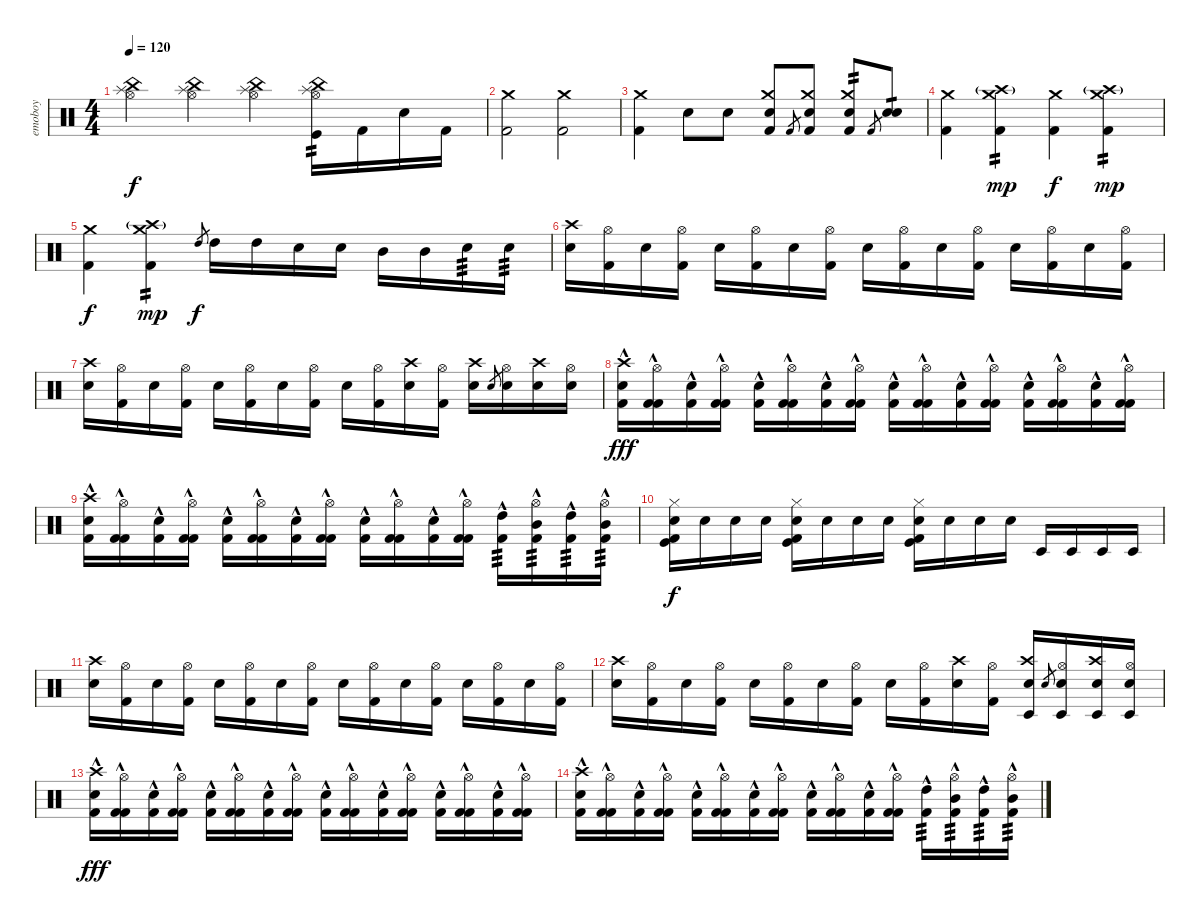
\track ("emoboy" "emoboy") {instrument percussion}
\staff {score}
\articulation defaults
\ts (4 4)
\tempo 120
\clef neutral
\ks c
("China (hit)" "Hi-Hat (open)" "Splash (hit)").4{dy f} ("China (hit)" "Hi-Hat (open)" "Splash (hit)").4 ("China (hit)" "Hi-Hat (open)" "Splash (hit)").4 ("China (hit)" "Hi-Hat (open)" "Kick (hit)" "Splash (hit)").16{tp 2} "Kick (hit) 2".16 "Electric Snare (hit)".16 "Kick (hit) 2".16 |
("Crash medium (hit)" "Kick (hit) 2").2 ("Crash medium (hit)" "Kick (hit) 2").2 |
("Kick (hit) 2" "Crash medium (hit)").4 "Snare (hit)".8 "Snare (hit)".8 ("Crash medium (hit)" "Kick (hit) 2" "Snare (hit)").8 "Kick (hit) 2".8{gr} ("Crash medium (hit)" "Kick (hit) 2" "Snare (hit)").8 ("Crash medium (hit)" "Kick (hit) 2" "Snare (hit)").8{tp 2} "Kick (hit) 2".8{gr} ("Electric Snare (hit)" "Snare (hit)").8{tp 1} |
("Crash medium (hit)" "Kick (hit) 2").4 ("Crash high (hit)"{g} "Crash medium (hit)" "Kick (hit) 2").4{tp 2 dy mp} ("Crash medium (hit)" "Kick (hit) 2").4{dy f} ("Crash high (hit)"{g} "Crash medium (hit)" "Kick (hit) 2").4{tp 2 dy mp} |
("Crash medium (hit)" "Kick (hit) 2").4{dy f} ("Crash high (hit)"{g} "Crash medium (hit)" "Kick (hit) 2").4{tp 2 dy mp} "High Tom (hit)".8{gr dy f} "High Tom (hit)".16 "High Tom (hit)".16 "Electric Snare (hit)".16 "Electric Snare (hit)".16 "Mid Tom (hit)".16 "Mid Tom (hit)".16 "Electric Snare (hit)".16{tp 3} "Electric Snare (hit)".16{tp 3} |
("Electric Snare (hit)" "Crash high (hit)").16 ("Kick (hit) 2" "Hi-Hat (open)").16 "Electric Snare (hit)".16 ("Kick (hit) 2" "Hi-Hat (open)").16 "Electric Snare (hit)".16 ("Kick (hit) 2" "Hi-Hat (open)").16 "Electric Snare (hit)".16 ("Kick (hit) 2" "Hi-Hat (open)").16 "Electric Snare (hit)".16 ("Kick (hit) 2" "Hi-Hat (open)").16 "Electric Snare (hit)".16 ("Kick (hit) 2" "Hi-Hat (open)").16 "Electric Snare (hit)".16 ("Kick (hit) 2" "Hi-Hat (open)").16 "Electric Snare (hit)".16 ("Kick (hit) 2" "Hi-Hat (open)").16 |
("Electric Snare (hit)" "Crash high (hit)").16 ("Kick (hit) 2" "Hi-Hat (open)").16 "Electric Snare (hit)".16 ("Kick (hit) 2" "Hi-Hat (open)").16 "Electric Snare (hit)".16 ("Kick (hit) 2" "Hi-Hat (open)").16 "Electric Snare (hit)".16 ("Kick (hit) 2" "Hi-Hat (open)").16 "Electric Snare (hit)".16 ("Kick (hit) 2" "Hi-Hat (open)").16 ("Electric Snare (hit)" "Crash high (hit)").16 ("Kick (hit) 2" "Hi-Hat (open)").16 ("Electric Snare (hit)" "Crash high (hit)").16 "Electric Snare (hit)".8{gr} ("Electric Snare (hit)" "Hi-Hat (open)").16 ("Electric Snare (hit)" "Crash high (hit)").16 ("Electric Snare (hit)" "Hi-Hat (open)").16 |
("Electric Snare (hit)"{hac} "Crash high (hit)"{hac} "Kick (hit) 2"{hac}).16{dy fff} ("Kick (hit) 2"{hac} "Hi-Hat (open)"{hac} "Kick (hit) 2"{hac}).16 ("Electric Snare (hit)"{hac} "Kick (hit) 2"{hac}).16 ("Kick (hit) 2"{hac} "Hi-Hat (open)"{hac} "Kick (hit) 2"{hac}).16 ("Electric Snare (hit)"{hac} "Kick (hit) 2"{hac}).16 ("Kick (hit) 2"{hac} "Hi-Hat (open)"{hac} "Kick (hit) 2"{hac}).16 ("Electric Snare (hit)"{hac} "Kick (hit) 2"{hac}).16 ("Kick (hit) 2"{hac} "Hi-Hat (open)"{hac} "Kick (hit) 2"{hac}).16 ("Electric Snare (hit)"{hac} "Kick (hit) 2"{hac}).16 ("Kick (hit) 2"{hac} "Hi-Hat (open)"{hac} "Kick (hit) 2"{hac}).16 ("Electric Snare (hit)"{hac} "Kick (hit) 2"{hac}).16 ("Kick (hit) 2"{hac} "Hi-Hat (open)"{hac} "Kick (hit) 2"{hac}).16 ("Electric Snare (hit)"{hac} "Kick (hit) 2"{hac}).16 ("Kick (hit) 2"{hac} "Hi-Hat (open)"{hac} "Kick (hit) 2"{hac}).16 ("Electric Snare (hit)"{hac} "Kick (hit) 2"{hac}).16 ("Kick (hit) 2"{hac} "Hi-Hat (open)"{hac} "Kick (hit) 2"{hac}).16 |
("Electric Snare (hit)"{hac} "Crash high (hit)"{hac} "Kick (hit) 2"{hac}).16 ("Kick (hit) 2"{hac} "Hi-Hat (open)"{hac} "Kick (hit) 2"{hac}).16 ("Electric Snare (hit)"{hac} "Kick (hit) 2"{hac}).16 ("Kick (hit) 2"{hac} "Hi-Hat (open)"{hac} "Kick (hit) 2"{hac}).16 ("Electric Snare (hit)"{hac} "Kick (hit) 2"{hac}).16 ("Kick (hit) 2"{hac} "Hi-Hat (open)"{hac} "Kick (hit) 2"{hac}).16 ("Electric Snare (hit)"{hac} "Kick (hit) 2"{hac}).16 ("Kick (hit) 2"{hac} "Hi-Hat (open)"{hac} "Kick (hit) 2"{hac}).16 ("Electric Snare (hit)"{hac} "Kick (hit) 2"{hac}).16 ("Kick (hit) 2"{hac} "Hi-Hat (open)"{hac} "Kick (hit) 2"{hac}).16 ("Electric Snare (hit)"{hac} "Kick (hit) 2"{hac}).16 ("Kick (hit) 2"{hac} "Hi-Hat (open)"{hac} "Kick (hit) 2"{hac}).16 ("High Tom (hit)"{hac} "Kick (hit) 2"{hac}).16{tp 3} ("Mid Tom (hit)"{hac} "Hi-Hat (open)"{hac} "Kick (hit) 2"{hac}).16{tp 3} ("High Tom (hit)"{hac} "Kick (hit) 2"{hac}).16{tp 3} ("Mid Tom (hit)"{hac} "Hi-Hat (open)"{hac} "Kick (hit) 2"{hac}).16{tp 3} |
("Hi-Hat (closed)" "Snare (hit)" "Kick (hit) 2" "Kick (hit)").16{dy f} "Snare (hit)".16 "Snare (hit)".16 "Snare (hit)".16 ("Hi-Hat (closed)" "Snare (hit)" "Kick (hit) 2" "Kick (hit)").16 "Snare (hit)".16 "Snare (hit)".16 "Snare (hit)".16 ("Hi-Hat (closed)" "Snare (hit)" "Kick (hit) 2" "Kick (hit)").16 "Snare (hit)".16 "Snare (hit)".16 "Snare (hit)".16 "Timbale low (hit)".16 "Timbale low (hit)".16 "Timbale low (hit)".16 "Timbale low (hit)".16 |
("Electric Snare (hit)" "Crash high (hit)").16 ("Kick (hit) 2" "Hi-Hat (open)").16 "Electric Snare (hit)".16 ("Kick (hit) 2" "Hi-Hat (open)").16 "Electric Snare (hit)".16 ("Kick (hit) 2" "Hi-Hat (open)").16 "Electric Snare (hit)".16 ("Kick (hit) 2" "Hi-Hat (open)").16 "Electric Snare (hit)".16 ("Kick (hit) 2" "Hi-Hat (open)").16 "Electric Snare (hit)".16 ("Kick (hit) 2" "Hi-Hat (open)").16 "Electric Snare (hit)".16 ("Kick (hit) 2" "Hi-Hat (open)").16 "Electric Snare (hit)".16 ("Kick (hit) 2" "Hi-Hat (open)").16 |
("Electric Snare (hit)" "Crash high (hit)").16 ("Kick (hit) 2" "Hi-Hat (open)").16 "Electric Snare (hit)".16 ("Kick (hit) 2" "Hi-Hat (open)").16 "Electric Snare (hit)".16 ("Kick (hit) 2" "Hi-Hat (open)").16 "Electric Snare (hit)".16 ("Kick (hit) 2" "Hi-Hat (open)").16 "Electric Snare (hit)".16 ("Kick (hit) 2" "Hi-Hat (open)").16 ("Electric Snare (hit)" "Crash high (hit)").16 ("Kick (hit) 2" "Hi-Hat (open)").16 ("Timbale low (hit)" "Electric Snare (hit)" "Crash high (hit)").16 "Electric Snare (hit)".8{gr} ("Timbale low (hit)" "Electric Snare (hit)" "Hi-Hat (open)").16 ("Timbale low (hit)" "Electric Snare (hit)" "Crash high (hit)").16 ("Timbale low (hit)" "Electric Snare (hit)" "Hi-Hat (open)").16 |
("Electric Snare (hit)"{hac} "Crash high (hit)"{hac} "Kick (hit) 2"{hac}).16{dy fff} ("Kick (hit) 2"{hac} "Hi-Hat (open)"{hac} "Kick (hit) 2"{hac}).16 ("Electric Snare (hit)"{hac} "Kick (hit) 2"{hac}).16 ("Kick (hit) 2"{hac} "Hi-Hat (open)"{hac} "Kick (hit) 2"{hac}).16 ("Electric Snare (hit)"{hac} "Kick (hit) 2"{hac}).16 ("Kick (hit) 2"{hac} "Hi-Hat (open)"{hac} "Kick (hit) 2"{hac}).16 ("Electric Snare (hit)"{hac} "Kick (hit) 2"{hac}).16 ("Kick (hit) 2"{hac} "Hi-Hat (open)"{hac} "Kick (hit) 2"{hac}).16 ("Electric Snare (hit)"{hac} "Kick (hit) 2"{hac}).16 ("Kick (hit) 2"{hac} "Hi-Hat (open)"{hac} "Kick (hit) 2"{hac}).16 ("Electric Snare (hit)"{hac} "Kick (hit) 2"{hac}).16 ("Kick (hit) 2"{hac} "Hi-Hat (open)"{hac} "Kick (hit) 2"{hac}).16 ("Electric Snare (hit)"{hac} "Kick (hit) 2"{hac}).16 ("Kick (hit) 2"{hac} "Hi-Hat (open)"{hac} "Kick (hit) 2"{hac}).16 ("Electric Snare (hit)"{hac} "Kick (hit) 2"{hac}).16 ("Kick (hit) 2"{hac} "Hi-Hat (open)"{hac} "Kick (hit) 2"{hac}).16 |
("Electric Snare (hit)"{hac} "Crash high (hit)"{hac} "Kick (hit) 2"{hac}).16 ("Kick (hit) 2"{hac} "Hi-Hat (open)"{hac} "Kick (hit) 2"{hac}).16 ("Electric Snare (hit)"{hac} "Kick (hit) 2"{hac}).16 ("Kick (hit) 2"{hac} "Hi-Hat (open)"{hac} "Kick (hit) 2"{hac}).16 ("Electric Snare (hit)"{hac} "Kick (hit) 2"{hac}).16 ("Kick (hit) 2"{hac} "Hi-Hat (open)"{hac} "Kick (hit) 2"{hac}).16 ("Electric Snare (hit)"{hac} "Kick (hit) 2"{hac}).16 ("Kick (hit) 2"{hac} "Hi-Hat (open)"{hac} "Kick (hit) 2"{hac}).16 ("Electric Snare (hit)"{hac} "Kick (hit) 2"{hac}).16 ("Kick (hit) 2"{hac} "Hi-Hat (open)"{hac} "Kick (hit) 2"{hac}).16 ("Electric Snare (hit)"{hac} "Kick (hit) 2"{hac}).16 ("Kick (hit) 2"{hac} "Hi-Hat (open)"{hac} "Kick (hit) 2"{hac}).16 ("High Tom (hit)"{hac} "Kick (hit) 2"{hac}).16{tp 3} ("Mid Tom (hit)"{hac} "Hi-Hat (open)"{hac} "Kick (hit) 2"{hac}).16{tp 3} ("High Tom (hit)"{hac} "Kick (hit) 2"{hac}).16{tp 3} ("Mid Tom (hit)"{hac} "Hi-Hat (open)"{hac} "Kick (hit) 2"{hac}).16{tp 3}
